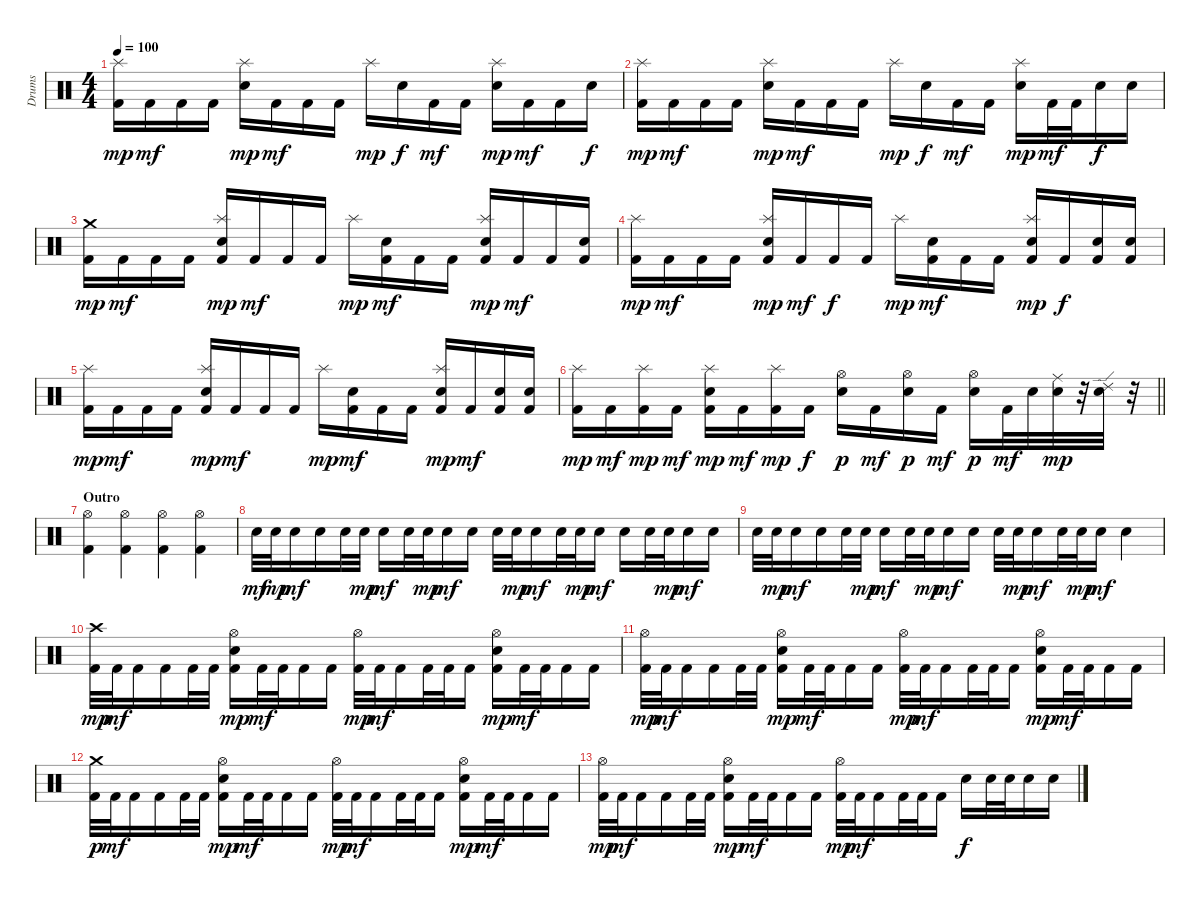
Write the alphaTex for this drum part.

\track ("Drums" "Drums") {instrument percussion}
\staff {score}
\articulation defaults
\ts (4 4)
\tempo 100
\clef neutral
\ks c
("Kick (hit) 2" "Splash (hit)").16{dy mp} "Kick (hit) 2".16{dy mf} "Kick (hit) 2".16 "Kick (hit) 2".16 ("Splash (hit)" "Snare (hit) 2").16{dy mp} "Kick (hit) 2".16{dy mf} "Kick (hit) 2".16 "Kick (hit) 2".16 "Splash (hit)".16{dy mp} "Snare (hit) 2".16{dy f} "Kick (hit) 2".16{dy mf} "Kick (hit) 2".16 ("Splash (hit)" "Snare (hit) 2").16{dy mp} "Kick (hit) 2".16{dy mf} "Kick (hit) 2".16 "Snare (hit) 2".16{dy f} |
("Kick (hit) 2" "Splash (hit)").16{dy mp} "Kick (hit) 2".16{dy mf} "Kick (hit) 2".16 "Kick (hit) 2".16 ("Splash (hit)" "Snare (hit) 2").16{dy mp} "Kick (hit) 2".16{dy mf} "Kick (hit) 2".16 "Kick (hit) 2".16 "Splash (hit)".16{dy mp} "Snare (hit) 2".16{dy f} "Kick (hit) 2".16{dy mf} "Kick (hit) 2".16 ("Splash (hit)" "Snare (hit) 2").16{dy mp} "Kick (hit) 2".32{dy mf} "Kick (hit) 2".32 "Snare (hit) 2".16{dy f} "Snare (hit) 2".16 |
("Kick (hit) 2" "Crash medium (hit)").16{dy mp} "Kick (hit) 2".16{dy mf} "Kick (hit) 2".16 "Kick (hit) 2".16 ("Kick (hit) 2" "Splash (hit)" "Snare (hit) 2").16{dy mp} "Kick (hit) 2".16{dy mf} "Kick (hit) 2".16 "Kick (hit) 2".16 "Splash (hit)".16{dy mp} ("Kick (hit) 2" "Snare (hit) 2").16{dy mf} "Kick (hit) 2".16 "Kick (hit) 2".16 ("Kick (hit) 2" "Splash (hit)" "Snare (hit) 2").16{dy mp} "Kick (hit) 2".16{dy mf} "Kick (hit) 2".16 ("Kick (hit) 2" "Snare (hit) 2").16 |
("Kick (hit) 2" "Splash (hit)").16{dy mp} "Kick (hit) 2".16{dy mf} "Kick (hit) 2".16 "Kick (hit) 2".16 ("Kick (hit) 2" "Splash (hit)" "Snare (hit) 2").16{dy mp} "Kick (hit) 2".16{dy mf} "Kick (hit) 2".16{dy f} "Kick (hit) 2".16 "Splash (hit)".16{dy mp} ("Kick (hit) 2" "Snare (hit) 2").16{dy mf} "Kick (hit) 2".16 "Kick (hit) 2".16 ("Kick (hit) 2" "Splash (hit)" "Snare (hit) 2").16{dy mp} "Kick (hit) 2".16{dy f} ("Kick (hit) 2" "Snare (hit) 2").16 ("Kick (hit) 2" "Snare (hit) 2").16 |
("Kick (hit) 2" "Splash (hit)").16{dy mp} "Kick (hit) 2".16{dy mf} "Kick (hit) 2".16 "Kick (hit) 2".16 ("Kick (hit) 2" "Splash (hit)" "Snare (hit) 2").16{dy mp} "Kick (hit) 2".16{dy mf} "Kick (hit) 2".16 "Kick (hit) 2".16 "Splash (hit)".16{dy mp} ("Kick (hit) 2" "Snare (hit) 2").16{dy mf} "Kick (hit) 2".16 "Kick (hit) 2".16 ("Kick (hit) 2" "Splash (hit)" "Snare (hit) 2").16{dy mp} "Kick (hit) 2".16{dy mf} ("Kick (hit) 2" "Snare (hit) 2").16 ("Kick (hit) 2" "Snare (hit) 2").16 |
\barLineRight lightlight
("Kick (hit) 2" "Splash (hit)").16{dy mp} "Kick (hit) 2".16{dy mf} ("Kick (hit) 2" "Splash (hit)").16{dy mp} "Kick (hit) 2".16{dy mf} ("Kick (hit) 2" "Splash (hit)" "Snare (hit) 2").16{dy mp} "Kick (hit) 2".16{dy mf} ("Kick (hit) 2" "Splash (hit)").16{dy mp} "Kick (hit) 2".16{dy f} ("Hi-Hat (open)" "Snare (hit) 2").16{dy p} "Kick (hit) 2".16{dy mf} ("Hi-Hat (open)" "Snare (hit) 2").16{dy p} "Kick (hit) 2".16{dy mf} ("Hi-Hat (open)" "Snare (hit) 2").16{dy p} "Kick (hit) 2".32{dy mf} "Snare (hit) 2".32 ("Ride (middle)" "Snare (hit) 2").32{dy mp} r.32 ("Ride (edge) 2" "Snare (hit) 2").32 r.32 |
\section ("" "Outro")
("Kick (hit) 2" "Hi-Hat (open)").4 ("Kick (hit) 2" "Hi-Hat (open)").4 ("Kick (hit) 2" "Hi-Hat (open)").4 ("Kick (hit) 2" "Hi-Hat (open)").4 |
"Snare (hit) 2".32{dy mf} "Snare (hit) 2".32{dy mp} "Snare (hit) 2".16{dy mf} "Snare (hit) 2".16 "Snare (hit) 2".32 "Snare (hit) 2".32{dy mp} "Snare (hit) 2".16{dy mf} "Snare (hit) 2".32 "Snare (hit) 2".32{dy mp} "Snare (hit) 2".16{dy mf} "Snare (hit) 2".16 "Snare (hit) 2".32 "Snare (hit) 2".32{dy mp} "Snare (hit) 2".16{dy mf} "Snare (hit) 2".32 "Snare (hit) 2".32{dy mp} "Snare (hit) 2".16{dy mf} "Snare (hit) 2".16 "Snare (hit) 2".32 "Snare (hit) 2".32{dy mp} "Snare (hit) 2".16{dy mf} "Snare (hit) 2".16 |
"Snare (hit) 2".32 "Snare (hit) 2".32{dy mp} "Snare (hit) 2".16{dy mf} "Snare (hit) 2".16 "Snare (hit) 2".32 "Snare (hit) 2".32{dy mp} "Snare (hit) 2".16{dy mf} "Snare (hit) 2".32 "Snare (hit) 2".32{dy mp} "Snare (hit) 2".16{dy mf} "Snare (hit) 2".16 "Snare (hit) 2".32 "Snare (hit) 2".32{dy mp} "Snare (hit) 2".16{dy mf} "Snare (hit) 2".32 "Snare (hit) 2".32{dy mp} "Snare (hit) 2".16{dy mf} "Snare (hit) 2".4 |
("Kick (hit) 2" "Crash high (hit)").32{dy mp} "Kick (hit) 2".32{dy mf} "Kick (hit) 2".16 "Kick (hit) 2".16 "Kick (hit) 2".32 "Kick (hit) 2".32 ("Kick (hit) 2" "Hi-Hat (open)" "Snare (hit) 2").16{dy mp} "Kick (hit) 2".32{dy mf} "Kick (hit) 2".32 "Kick (hit) 2".16 "Kick (hit) 2".16 ("Kick (hit) 2" "Hi-Hat (open)").32{dy mp} "Kick (hit) 2".32{dy mf} "Kick (hit) 2".16 "Kick (hit) 2".32 "Kick (hit) 2".32 "Kick (hit) 2".16 ("Kick (hit) 2" "Hi-Hat (open)" "Snare (hit) 2").16{dy mp} "Kick (hit) 2".32{dy mf} "Kick (hit) 2".32 "Kick (hit) 2".16 "Kick (hit) 2".16 |
("Kick (hit) 2" "Hi-Hat (open)").32{dy mp} "Kick (hit) 2".32{dy mf} "Kick (hit) 2".16 "Kick (hit) 2".16 "Kick (hit) 2".32 "Kick (hit) 2".32 ("Kick (hit) 2" "Hi-Hat (open)" "Snare (hit) 2").16{dy mp} "Kick (hit) 2".32{dy mf} "Kick (hit) 2".32 "Kick (hit) 2".16 "Kick (hit) 2".16 ("Kick (hit) 2" "Hi-Hat (open)").32{dy mp} "Kick (hit) 2".32{dy mf} "Kick (hit) 2".16 "Kick (hit) 2".32 "Kick (hit) 2".32 "Kick (hit) 2".16 ("Kick (hit) 2" "Hi-Hat (open)" "Snare (hit) 2").16{dy mp} "Kick (hit) 2".32{dy mf} "Kick (hit) 2".32 "Kick (hit) 2".16 "Kick (hit) 2".16 |
("Kick (hit) 2" "Crash medium (hit)").32{dy p} "Kick (hit) 2".32{dy mf} "Kick (hit) 2".16 "Kick (hit) 2".16 "Kick (hit) 2".32 "Kick (hit) 2".32 ("Kick (hit) 2" "Hi-Hat (open)" "Snare (hit) 2").16{dy mp} "Kick (hit) 2".32{dy mf} "Kick (hit) 2".32 "Kick (hit) 2".16 "Kick (hit) 2".16 ("Kick (hit) 2" "Hi-Hat (open)").32{dy mp} "Kick (hit) 2".32{dy mf} "Kick (hit) 2".16 "Kick (hit) 2".32 "Kick (hit) 2".32 "Kick (hit) 2".16 ("Kick (hit) 2" "Hi-Hat (open)" "Snare (hit) 2").16{dy mp} "Kick (hit) 2".32{dy mf} "Kick (hit) 2".32 "Kick (hit) 2".16 "Kick (hit) 2".16 |
("Kick (hit) 2" "Hi-Hat (open)").32{dy mp} "Kick (hit) 2".32{dy mf} "Kick (hit) 2".16 "Kick (hit) 2".16 "Kick (hit) 2".32 "Kick (hit) 2".32 ("Kick (hit) 2" "Hi-Hat (open)" "Snare (hit) 2").16{dy mp} "Kick (hit) 2".32{dy mf} "Kick (hit) 2".32 "Kick (hit) 2".16 "Kick (hit) 2".16 ("Kick (hit) 2" "Hi-Hat (open)").32{dy mp} "Kick (hit) 2".32{dy mf} "Kick (hit) 2".16 "Kick (hit) 2".32 "Kick (hit) 2".32 "Kick (hit) 2".16 "Snare (hit) 2".16{dy f} "Snare (hit) 2".32 "Snare (hit) 2".32 "Snare (hit) 2".16 "Snare (hit) 2".16
